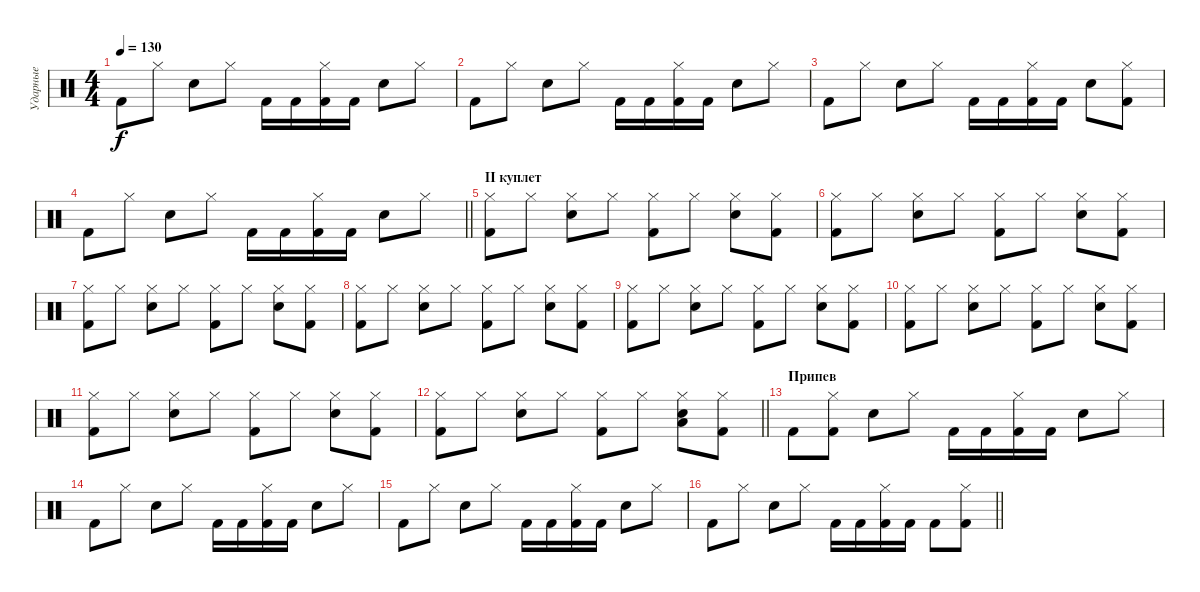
\track ("Ударные" "Ударные") {instrument percussion}
\staff {score}
\articulation defaults
\ts (4 4)
\tempo 130
\clef neutral
\ks c "Kick (hit) 2".8{dy f} "Hi-Hat (closed)".8 "Electric Snare (hit)".8 "Hi-Hat (closed)".8 "Kick (hit) 2".16 "Kick (hit) 2".16
("Hi-Hat (closed)" "Kick (hit) 2").16 "Kick (hit) 2".16 "Electric Snare (hit)".8 "Hi-Hat (closed)".8 |
"Kick (hit) 2".8 "Hi-Hat (closed)".8 "Electric Snare (hit)".8 "Hi-Hat (closed)".8 "Kick (hit) 2".16 "Kick (hit) 2".16 ("Hi-Hat (closed)" "Kick (hit) 2").16 "Kick (hit) 2".16 "Electric Snare (hit)".8 "Hi-Hat (closed)".8 |
"Kick (hit) 2".8 "Hi-Hat (closed)".8 "Electric Snare (hit)".8 "Hi-Hat (closed)".8 "Kick (hit) 2".16 "Kick (hit) 2".16 ("Hi-Hat (closed)" "Kick (hit) 2").16 "Kick (hit) 2".16 "Electric Snare (hit)".8 ("Hi-Hat (closed)" "Kick (hit) 2").8 |
\barLineRight lightlight "Kick (hit) 2".8 "Hi-Hat (closed)".8 "Electric Snare (hit)".8 "Hi-Hat (closed)".8 "Kick (hit) 2".16 "Kick (hit) 2".16
("Hi-Hat (closed)" "Kick (hit) 2").16 "Kick (hit) 2".16 "Electric Snare (hit)".8 "Hi-Hat (closed)".8 |
\section ("" "II куплет")
("Hi-Hat (closed)" "Kick (hit) 2").8 "Hi-Hat (closed)".8 ("Hi-Hat (closed)" "Electric Snare (hit)").8 "Hi-Hat (closed)".8 ("Hi-Hat (closed)" "Kick (hit) 2").8 "Hi-Hat (closed)".8 ("Hi-Hat (closed)" "Electric Snare (hit)").8 ("Hi-Hat (closed)" "Kick (hit) 2").8 |
("Hi-Hat (closed)" "Kick (hit) 2").8 "Hi-Hat (closed)".8 ("Hi-Hat (closed)" "Electric Snare (hit)").8 "Hi-Hat (closed)".8 ("Hi-Hat (closed)" "Kick (hit) 2").8 "Hi-Hat (closed)".8 ("Hi-Hat (closed)" "Electric Snare (hit)").8 ("Hi-Hat (closed)" "Kick (hit) 2").8 |
("Hi-Hat (closed)" "Kick (hit) 2").8 "Hi-Hat (closed)".8 ("Hi-Hat (closed)" "Electric Snare (hit)").8 "Hi-Hat (closed)".8 ("Hi-Hat (closed)" "Kick (hit) 2").8 "Hi-Hat (closed)".8 ("Hi-Hat (closed)" "Electric Snare (hit)").8 ("Hi-Hat (closed)" "Kick (hit) 2").8 |
("Hi-Hat (closed)" "Kick (hit) 2").8 "Hi-Hat (closed)".8 ("Hi-Hat (closed)" "Electric Snare (hit)").8 "Hi-Hat (closed)".8 ("Hi-Hat (closed)" "Kick (hit) 2").8 "Hi-Hat (closed)".8 ("Hi-Hat (closed)" "Electric Snare (hit)").8 ("Hi-Hat (closed)" "Kick (hit) 2").8 |
("Hi-Hat (closed)" "Kick (hit) 2").8 "Hi-Hat (closed)".8 ("Hi-Hat (closed)" "Electric Snare (hit)").8 "Hi-Hat (closed)".8 ("Hi-Hat (closed)" "Kick (hit) 2").8 "Hi-Hat (closed)".8 ("Hi-Hat (closed)" "Electric Snare (hit)").8 ("Hi-Hat (closed)" "Kick (hit) 2").8 |
("Hi-Hat (closed)" "Kick (hit) 2").8 "Hi-Hat (closed)".8 ("Hi-Hat (closed)" "Electric Snare (hit)").8 "Hi-Hat (closed)".8 ("Hi-Hat (closed)" "Kick (hit) 2").8 "Hi-Hat (closed)".8 ("Hi-Hat (closed)" "Electric Snare (hit)").8 ("Hi-Hat (closed)" "Kick (hit) 2").8 |
("Hi-Hat (closed)" "Kick (hit) 2").8 "Hi-Hat (closed)".8 ("Hi-Hat (closed)" "Electric Snare (hit)").8 "Hi-Hat (closed)".8 ("Hi-Hat (closed)" "Kick (hit) 2").8 "Hi-Hat (closed)".8 ("Hi-Hat (closed)" "Electric Snare (hit)").8 ("Hi-Hat (closed)" "Kick (hit) 2").8 |
\barLineRight lightlight
("Hi-Hat (closed)" "Kick (hit) 2").8 "Hi-Hat (closed)".8 ("Hi-Hat (closed)" "Electric Snare (hit)").8 "Hi-Hat (closed)".8 ("Hi-Hat (closed)" "Kick (hit) 2").8 "Hi-Hat (closed)".8 ("Hi-Hat (closed)" "Electric Snare (hit)" "Low Tom (hit)").8 ("Hi-Hat (closed)" "Kick (hit) 2").8 |
\section ("" "Припев")
"Kick (hit) 2".8 ("Hi-Hat (closed)" "Kick (hit) 2").8 "Electric Snare (hit)".8 "Hi-Hat (closed)".8 "Kick (hit) 2".16 "Kick (hit) 2".16 ("Hi-Hat (closed)" "Kick (hit) 2").16 "Kick (hit) 2".16 "Electric Snare (hit)".8 "Hi-Hat (closed)".8 |
"Kick (hit) 2".8 "Hi-Hat (closed)".8 "Electric Snare (hit)".8 "Hi-Hat (closed)".8 "Kick (hit) 2".16 "Kick (hit) 2".16 ("Hi-Hat (closed)" "Kick (hit) 2").16 "Kick (hit) 2".16 "Electric Snare (hit)".8 "Hi-Hat (closed)".8 |
"Kick (hit) 2".8 "Hi-Hat (closed)".8 "Electric Snare (hit)".8 "Hi-Hat (closed)".8 "Kick (hit) 2".16 "Kick (hit) 2".16 ("Hi-Hat (closed)" "Kick (hit) 2").16 "Kick (hit) 2".16 "Electric Snare (hit)".8 "Hi-Hat (closed)".8 |
\barLineRight lightlight "Kick (hit) 2".8 "Hi-Hat (closed)".8 "Electric Snare (hit)".8 "Hi-Hat (closed)".8 "Kick (hit) 2".16 "Kick (hit) 2".16
("Hi-Hat (closed)" "Kick (hit) 2").16 "Kick (hit) 2".16 "Kick (hit) 2".8 ("Hi-Hat (closed)" "Kick (hit) 2").8
